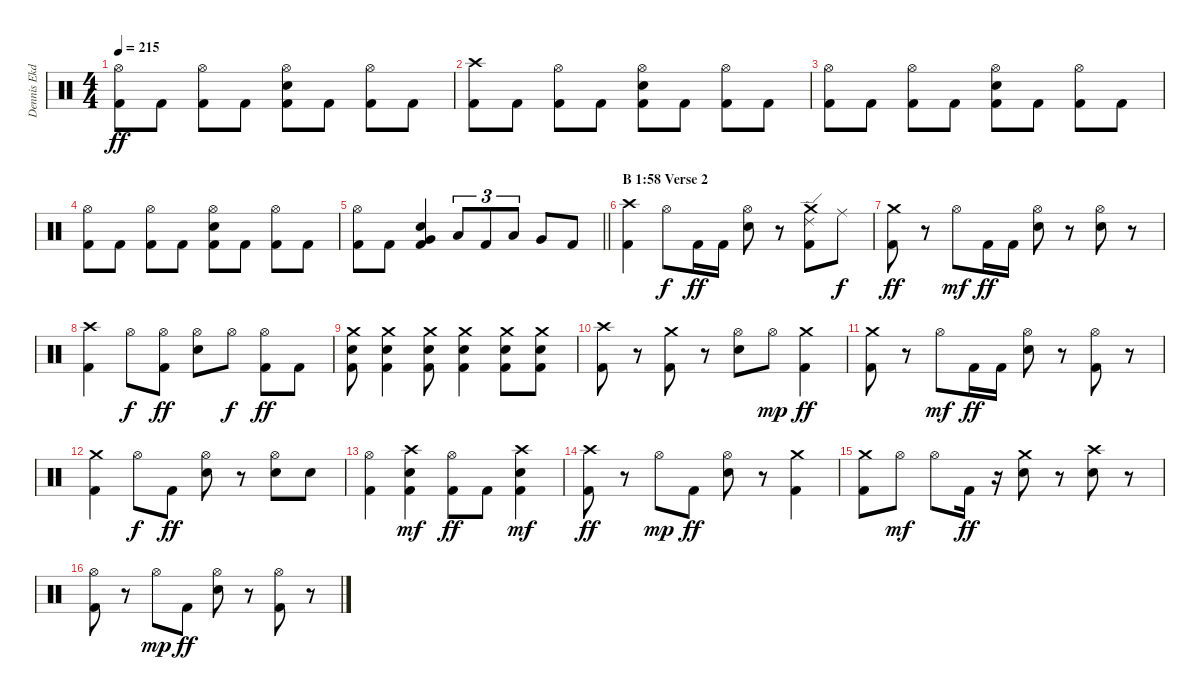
\track ("Dennis Ekdahl      (Drums)" "Dennis Ekd") {instrument percussion}
\staff {score}
\articulation defaults
\ts (4 4)
\tempo 215
\clef neutral
\ks c
("Hi-Hat (open)" "Kick (hit) 2").8{dy ff} "Kick (hit) 2".8 ("Hi-Hat (open)" "Kick (hit) 2").8 "Kick (hit) 2".8 ("Hi-Hat (open)" "Electric Snare (hit)" "Kick (hit) 2").8 "Kick (hit) 2".8 ("Hi-Hat (open)" "Kick (hit) 2").8 "Kick (hit) 2".8 |
("Crash high (hit)" "Kick (hit) 2").8 "Kick (hit) 2".8 ("Hi-Hat (open)" "Kick (hit) 2").8 "Kick (hit) 2".8 ("Hi-Hat (open)" "Electric Snare (hit)" "Kick (hit) 2").8 "Kick (hit) 2".8 ("Hi-Hat (open)" "Kick (hit) 2").8 "Kick (hit) 2".8 |
("Hi-Hat (open)" "Kick (hit) 2").8 "Kick (hit) 2".8 ("Hi-Hat (open)" "Kick (hit) 2").8 "Kick (hit) 2".8 ("Hi-Hat (open)" "Electric Snare (hit)" "Kick (hit) 2").8 "Kick (hit) 2".8 ("Hi-Hat (open)" "Kick (hit) 2").8 "Kick (hit) 2".8 |
("Hi-Hat (open)" "Kick (hit) 2").8 "Kick (hit) 2".8 ("Hi-Hat (open)" "Kick (hit) 2").8 "Kick (hit) 2".8 ("Hi-Hat (open)" "Electric Snare (hit)" "Kick (hit) 2").8 "Kick (hit) 2".8 ("Hi-Hat (open)" "Kick (hit) 2").8 "Kick (hit) 2".8 |
\barLineRight lightlight
("Hi-Hat (open)" "Kick (hit) 2").8 "Kick (hit) 2".8 ("Electric Snare (hit)" "Very Low Tom (hit)" "Kick (hit) 2").4 "Low Tom (hit)".8{tu (3 2)} "Kick (hit) 2".8{tu (3 2)} "Low Floor Tom (hit)".8{tu (3 2)} "Very Low Tom (hit)".8 "Kick (hit) 2".8 |
\section ("" "B 1:58 Verse 2")
("Crash high (hit)" "Kick (hit) 2").4 "Hi-Hat (open)".8{dy f} "Kick (hit) 2".16{dy ff} "Kick (hit) 2".16 ("Hi-Hat (open)" "Electric Snare (hit)").8 r.8 ("Crash medium (hit)" "Ride (edge) 2" "Kick (hit) 2").8 "Ride (middle)".8{dy f} |
("Crash medium (hit)" "Kick (hit) 2").8{dy ff} r.8 "Hi-Hat (open)".8{dy mf} "Kick (hit) 2".16{dy ff} "Kick (hit) 2".16 ("Hi-Hat (open)" "Electric Snare (hit)").8 r.8 ("Hi-Hat (open)" "Electric Snare (hit)").8 r.8 |
("Crash high (hit)" "Kick (hit) 2").4 "Hi-Hat (open)".8{dy f} ("Hi-Hat (open)" "Kick (hit) 2").8{dy ff} ("Hi-Hat (open)" "Electric Snare (hit)").8 "Hi-Hat (open)".8{dy f} ("Hi-Hat (open)" "Kick (hit) 2").8{dy ff} "Kick (hit) 2".8 |
("Crash medium (hit)" "Electric Snare (hit)" "Kick (hit) 2").8 ("Crash medium (hit)" "Electric Snare (hit)" "Kick (hit) 2").4 ("Crash medium (hit)" "Electric Snare (hit)" "Kick (hit) 2").8 ("Crash medium (hit)" "Electric Snare (hit)" "Kick (hit) 2").4 ("Crash medium (hit)" "Electric Snare (hit)" "Kick (hit) 2").8 ("Crash medium (hit)" "Electric Snare (hit)" "Kick (hit) 2").8 |
("Crash high (hit)" "Kick (hit) 2").8 r.8 ("Crash medium (hit)" "Kick (hit) 2").8 r.8 ("Hi-Hat (open)" "Electric Snare (hit)").8 "Hi-Hat (open)".8{dy mp} ("Crash medium (hit)" "Kick (hit) 2").4{dy ff} |
("Crash medium (hit)" "Kick (hit) 2").8 r.8 "Hi-Hat (open)".8{dy mf} "Kick (hit) 2".16{dy ff} "Kick (hit) 2".16 ("Hi-Hat (open)" "Electric Snare (hit)").8 r.8 ("Hi-Hat (open)" "Kick (hit) 2").8 r.8 |
("Crash medium (hit)" "Kick (hit) 2").4 "Hi-Hat (open)".8{dy f} "Kick (hit) 2".8{dy ff} ("Hi-Hat (open)" "Electric Snare (hit)").8 r.8 ("Hi-Hat (open)" "Electric Snare (hit)").8 "Electric Snare (hit)".8 |
("Hi-Hat (open)" "Kick (hit) 2").4 ("Crash high (hit)" "Electric Snare (hit)" "Kick (hit) 2").4{dy mf} ("Hi-Hat (open)" "Kick (hit) 2").8{dy ff} "Kick (hit) 2".8 ("Crash high (hit)" "Electric Snare (hit)" "Kick (hit) 2").4{dy mf} |
("Crash high (hit)" "Kick (hit) 2").8{dy ff} r.8 "Hi-Hat (open)".8{dy mp} "Kick (hit) 2".8{dy ff} ("Hi-Hat (open)" "Electric Snare (hit)").8 r.8 ("Crash medium (hit)" "Kick (hit) 2").4 |
("Crash medium (hit)" "Kick (hit) 2").8 "Hi-Hat (open)".8{dy mf} "Hi-Hat (open)".8 "Kick (hit) 2".16{dy ff} r.16 ("Crash medium (hit)" "Electric Snare (hit)").8 r.8 ("Crash high (hit)" "Electric Snare (hit)").8 r.8 |
("Hi-Hat (open)" "Kick (hit) 2").8 r.8 "Hi-Hat (open)".8{dy mp} "Kick (hit) 2".8{dy ff} ("Hi-Hat (open)" "Electric Snare (hit)").8 r.8 ("Hi-Hat (open)" "Kick (hit) 2").8 r.8
